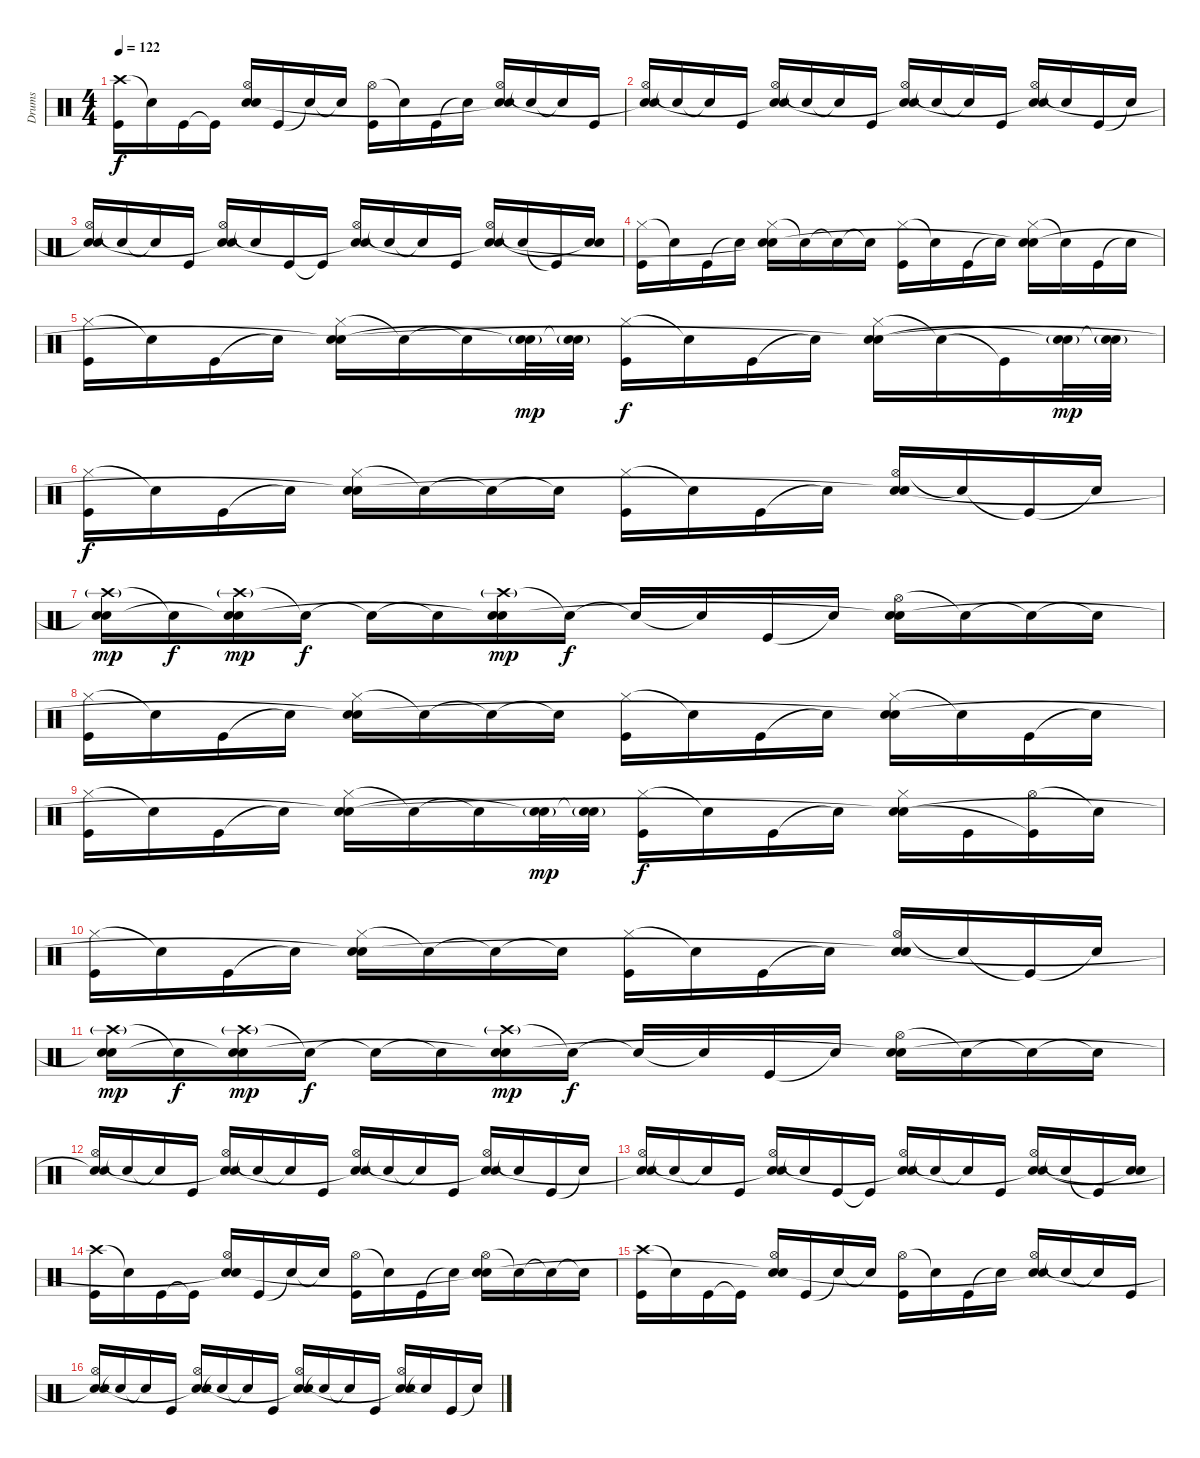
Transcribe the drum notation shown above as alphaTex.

\track ("Drums" "Drums") {instrument percussion}
\staff {score}
\articulation defaults
\ts (4 4)
\tempo 122
\clef neutral
\ks c
("Crash high (hit)" "Kick (hit)").16{dy f} "Snare (hit)"{t}.16 "Kick (hit)".16 "Kick (hit)"{t}.16 ("Hi-Hat (open)" "Electric Snare (hit)" "Snare (hit)"{t}).16 "Kick (hit)".16 "Snare (hit)"{t}.16 "Snare (hit)"{t}.16 ("Hi-Hat (open)" "Kick (hit)").16 "Snare (hit)"{t}.16 "Kick (hit)".16 "Snare (hit)"{t}.16 ("Hi-Hat (open)" "Electric Snare (hit)" "Snare (hit)"{t}).16 "Snare (hit)"{t}.16 "Snare (hit)"{t}.16 "Kick (hit)".16 |
("Hi-Hat (open)" "Electric Snare (hit)" "Snare (hit)"{t}).16 "Snare (hit)"{t}.16 "Snare (hit)"{t}.16 "Kick (hit)".16 ("Hi-Hat (open)" "Electric Snare (hit)" "Snare (hit)"{t}).16 "Snare (hit)"{t}.16 "Snare (hit)"{t}.16 "Kick (hit)".16 ("Hi-Hat (open)" "Electric Snare (hit)" "Snare (hit)"{t}).16 "Snare (hit)"{t}.16 "Snare (hit)"{t}.16 "Kick (hit)".16 ("Hi-Hat (open)" "Electric Snare (hit)" "Snare (hit)"{t}).16 "Snare (hit)"{t}.16 "Kick (hit)".16 "Snare (hit)"{t}.16 |
("Hi-Hat (open)" "Electric Snare (hit)" "Snare (hit)"{t}).16 "Snare (hit)"{t}.16 "Snare (hit)"{t}.16 "Kick (hit)".16 ("Hi-Hat (open)" "Electric Snare (hit)" "Snare (hit)"{t}).16 "Snare (hit)"{t}.16 "Kick (hit)".16 "Kick (hit)"{t}.16 ("Hi-Hat (open)" "Electric Snare (hit)" "Snare (hit)"{t}).16 "Snare (hit)"{t}.16 "Snare (hit)"{t}.16 "Kick (hit)".16 ("Hi-Hat (open)" "Electric Snare (hit)" "Snare (hit)"{t}).16 "Snare (hit)"{t}.16 "Kick (hit)"{t}.16 ("Electric Snare (hit)" "Snare (hit)"{t}).16 |
("Hi-Hat (closed)" "Kick (hit)").16 "Snare (hit)"{t}.16 "Kick (hit)".16 "Snare (hit)"{t}.16 ("Hi-Hat (closed)" "Electric Snare (hit)" "Snare (hit)"{t}).16 "Snare (hit)"{t}.16 "Snare (hit)"{t}.16 "Snare (hit)"{t}.16 ("Hi-Hat (closed)" "Kick (hit)").16 "Snare (hit)"{t}.16 "Kick (hit)".16 "Snare (hit)"{t}.16 ("Hi-Hat (closed)" "Electric Snare (hit)" "Snare (hit)"{t}).16 "Snare (hit)"{t}.16 "Kick (hit)".16 "Snare (hit)"{t}.16 |
("Hi-Hat (closed)" "Kick (hit)").16 "Snare (hit)"{t}.16 "Kick (hit)".16 "Snare (hit)"{t}.16 ("Hi-Hat (closed)" "Electric Snare (hit)" "Snare (hit)"{t}).16 "Snare (hit)"{t}.16 "Snare (hit)"{t}.16 ("Electric Snare (hit)"{g} "Snare (hit)"{t}).32{dy mp} ("Electric Snare (hit)"{g} "Snare (hit)"{t}).32 ("Hi-Hat (closed)" "Kick (hit)").16{dy f} "Snare (hit)"{t}.16 "Kick (hit)".16 "Snare (hit)"{t}.16 ("Hi-Hat (closed)" "Electric Snare (hit)" "Snare (hit)"{t}).16 "Snare (hit)"{t}.16 "Kick (hit)"{t}.16 ("Electric Snare (hit)"{g} "Snare (hit)"{t}).32{dy mp} ("Electric Snare (hit)"{g} "Snare (hit)"{t}).32 |
("Hi-Hat (closed)" "Kick (hit)").16{dy f} "Snare (hit)"{t}.16 "Kick (hit)".16 "Snare (hit)"{t}.16 ("Hi-Hat (closed)" "Electric Snare (hit)" "Snare (hit)"{t}).16 "Snare (hit)"{t}.16 "Snare (hit)"{t}.16 "Snare (hit)"{t}.16 ("Hi-Hat (closed)" "Kick (hit)").16 "Snare (hit)"{t}.16 "Kick (hit)".16 "Snare (hit)"{t}.16 ("Hi-Hat (open)" "Electric Snare (hit)" "Snare (hit)"{t}).16 "Snare (hit)"{t}.16 "Kick (hit)"{t}.16 "Snare (hit)"{t}.16 |
("Crash high (hit)"{g} "Electric Snare (hit)" "Snare (hit)"{t}).16{dy mp} "Snare (hit)"{t}.16{dy f} ("Crash high (hit)"{g} "Electric Snare (hit)" "Snare (hit)"{t}).16{dy mp} "Snare (hit)"{t}.16{dy f} "Snare (hit)"{t}.16 "Snare (hit)"{t}.16 ("Crash high (hit)"{g} "Electric Snare (hit)" "Snare (hit)"{t}).16{dy mp} "Snare (hit)"{t}.16{dy f} "Snare (hit)"{t}.16 "Snare (hit)"{t}.16 "Kick (hit)".16 "Snare (hit)"{t}.16 ("Hi-Hat (open)" "Electric Snare (hit)" "Snare (hit)"{t}).16 "Snare (hit)"{t}.16 "Snare (hit)"{t}.16 "Snare (hit)"{t}.16 |
("Hi-Hat (closed)" "Kick (hit)").16 "Snare (hit)"{t}.16 "Kick (hit)".16 "Snare (hit)"{t}.16 ("Hi-Hat (closed)" "Electric Snare (hit)" "Snare (hit)"{t}).16 "Snare (hit)"{t}.16 "Snare (hit)"{t}.16 "Snare (hit)"{t}.16 ("Hi-Hat (closed)" "Kick (hit)").16 "Snare (hit)"{t}.16 "Kick (hit)".16 "Snare (hit)"{t}.16 ("Hi-Hat (closed)" "Electric Snare (hit)" "Snare (hit)"{t}).16 "Snare (hit)"{t}.16 "Kick (hit)".16 "Snare (hit)"{t}.16 |
("Hi-Hat (closed)" "Kick (hit)").16 "Snare (hit)"{t}.16 "Kick (hit)".16 "Snare (hit)"{t}.16 ("Hi-Hat (closed)" "Electric Snare (hit)" "Snare (hit)"{t}).16 "Snare (hit)"{t}.16 "Snare (hit)"{t}.16 ("Electric Snare (hit)"{g} "Snare (hit)"{t}).32{dy mp} ("Electric Snare (hit)"{g} "Snare (hit)"{t}).32 ("Hi-Hat (closed)" "Kick (hit)").16{dy f} "Snare (hit)"{t}.16 "Kick (hit)".16 "Snare (hit)"{t}.16 ("Hi-Hat (closed)" "Electric Snare (hit)" "Snare (hit)"{t}).16 "Kick (hit)".16 ("Hi-Hat (open)" "Kick (hit)"{t}).16 "Snare (hit)"{t}.16 |
("Hi-Hat (closed)" "Kick (hit)").16 "Snare (hit)"{t}.16 "Kick (hit)".16 "Snare (hit)"{t}.16 ("Hi-Hat (closed)" "Electric Snare (hit)" "Snare (hit)"{t}).16 "Snare (hit)"{t}.16 "Snare (hit)"{t}.16 "Snare (hit)"{t}.16 ("Hi-Hat (closed)" "Kick (hit)").16 "Snare (hit)"{t}.16 "Kick (hit)".16 "Snare (hit)"{t}.16 ("Hi-Hat (open)" "Electric Snare (hit)" "Snare (hit)"{t}).16 "Snare (hit)"{t}.16 "Kick (hit)"{t}.16 "Snare (hit)"{t}.16 |
("Crash high (hit)"{g} "Electric Snare (hit)" "Snare (hit)"{t}).16{dy mp} "Snare (hit)"{t}.16{dy f} ("Crash high (hit)"{g} "Electric Snare (hit)" "Snare (hit)"{t}).16{dy mp} "Snare (hit)"{t}.16{dy f} "Snare (hit)"{t}.16 "Snare (hit)"{t}.16 ("Crash high (hit)"{g} "Electric Snare (hit)" "Snare (hit)"{t}).16{dy mp} "Snare (hit)"{t}.16{dy f} "Snare (hit)"{t}.16 "Snare (hit)"{t}.16 "Kick (hit)".16 "Snare (hit)"{t}.16 ("Hi-Hat (open)" "Electric Snare (hit)" "Snare (hit)"{t}).16 "Snare (hit)"{t}.16 "Snare (hit)"{t}.16 "Snare (hit)"{t}.16 |
("Hi-Hat (open)" "Electric Snare (hit)" "Snare (hit)"{t}).16 "Snare (hit)"{t}.16 "Snare (hit)"{t}.16 "Kick (hit)".16 ("Hi-Hat (open)" "Electric Snare (hit)" "Snare (hit)"{t}).16 "Snare (hit)"{t}.16 "Snare (hit)"{t}.16 "Kick (hit)".16 ("Hi-Hat (open)" "Electric Snare (hit)" "Snare (hit)"{t}).16 "Snare (hit)"{t}.16 "Snare (hit)"{t}.16 "Kick (hit)".16 ("Hi-Hat (open)" "Electric Snare (hit)" "Snare (hit)"{t}).16 "Snare (hit)"{t}.16 "Kick (hit)".16 "Snare (hit)"{t}.16 |
("Hi-Hat (open)" "Electric Snare (hit)" "Snare (hit)"{t}).16 "Snare (hit)"{t}.16 "Snare (hit)"{t}.16 "Kick (hit)".16 ("Hi-Hat (open)" "Electric Snare (hit)" "Snare (hit)"{t}).16 "Snare (hit)"{t}.16 "Kick (hit)".16 "Kick (hit)"{t}.16 ("Hi-Hat (open)" "Electric Snare (hit)" "Snare (hit)"{t}).16 "Snare (hit)"{t}.16 "Snare (hit)"{t}.16 "Kick (hit)".16 ("Hi-Hat (open)" "Electric Snare (hit)" "Snare (hit)"{t}).16 "Snare (hit)"{t}.16 "Kick (hit)"{t}.16 ("Electric Snare (hit)" "Snare (hit)"{t}).16 |
("Crash high (hit)" "Kick (hit)").16 "Snare (hit)"{t}.16 "Kick (hit)".16 "Kick (hit)"{t}.16 ("Hi-Hat (open)" "Electric Snare (hit)" "Snare (hit)"{t}).16 "Kick (hit)".16 "Snare (hit)"{t}.16 "Snare (hit)"{t}.16 ("Hi-Hat (open)" "Kick (hit)").16 "Snare (hit)"{t}.16 "Kick (hit)".16 "Snare (hit)"{t}.16 ("Hi-Hat (open)" "Electric Snare (hit)" "Snare (hit)"{t}).16 "Snare (hit)"{t}.16 "Snare (hit)"{t}.16 "Snare (hit)"{t}.16 |
("Crash high (hit)" "Kick (hit)").16 "Snare (hit)"{t}.16 "Kick (hit)".16 "Kick (hit)"{t}.16 ("Hi-Hat (open)" "Electric Snare (hit)" "Snare (hit)"{t}).16 "Kick (hit)".16 "Snare (hit)"{t}.16 "Snare (hit)"{t}.16 ("Hi-Hat (open)" "Kick (hit)").16 "Snare (hit)"{t}.16 "Kick (hit)".16 "Snare (hit)"{t}.16 ("Hi-Hat (open)" "Electric Snare (hit)" "Snare (hit)"{t}).16 "Snare (hit)"{t}.16 "Snare (hit)"{t}.16 "Kick (hit)".16 |
("Hi-Hat (open)" "Electric Snare (hit)" "Snare (hit)"{t}).16 "Snare (hit)"{t}.16 "Snare (hit)"{t}.16 "Kick (hit)".16 ("Hi-Hat (open)" "Electric Snare (hit)" "Snare (hit)"{t}).16 "Snare (hit)"{t}.16 "Snare (hit)"{t}.16 "Kick (hit)".16 ("Hi-Hat (open)" "Electric Snare (hit)" "Snare (hit)"{t}).16 "Snare (hit)"{t}.16 "Snare (hit)"{t}.16 "Kick (hit)".16 ("Hi-Hat (open)" "Electric Snare (hit)" "Snare (hit)"{t}).16 "Snare (hit)"{t}.16 "Kick (hit)".16 "Snare (hit)"{t}.16
